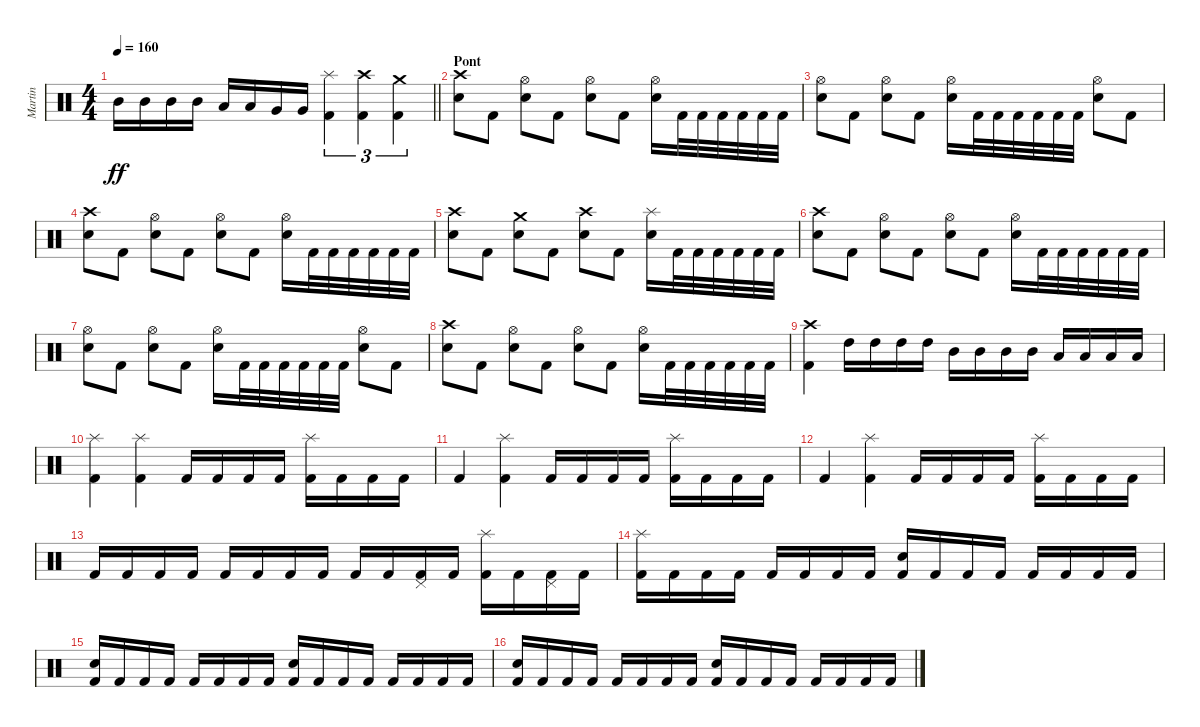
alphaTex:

\track ("Martin" "Martin") {instrument percussion}
\staff {score}
\articulation defaults
\ts (4 4)
\tempo 160
\clef neutral
\barLineRight lightlight
\ks c "Mid Tom (hit)".16{dy ff} "Mid Tom (hit)".16 "Mid Tom (hit)".16 "Mid Tom (hit)".16 "Low Tom (hit)".16 "Low Tom (hit)".16 "Very Low Tom (hit)".16 "Very Low Tom (hit)".16
("Splash (hit)" "Kick (hit) 2").4{tu (3 2)} ("Crash high (hit)" "Kick (hit) 2").4{tu (3 2)} ("Crash medium (hit)" "Kick (hit) 2").4{tu (3 2)} |
\section ("" "Pont")
("Crash high (hit)" "Electric Snare (hit)").8 "Kick (hit) 2".8 ("Hi-Hat (open)" "Electric Snare (hit)").8 "Kick (hit) 2".8 ("Hi-Hat (open)" "Electric Snare (hit)").8 "Kick (hit) 2".8 ("Hi-Hat (open)" "Electric Snare (hit)").16 "Kick (hit) 2".32 "Kick (hit) 2".32 "Kick (hit) 2".32 "Kick (hit) 2".32 "Kick (hit) 2".32 "Kick (hit) 2".32 |
("Hi-Hat (open)" "Electric Snare (hit)").8 "Kick (hit) 2".8 ("Hi-Hat (open)" "Electric Snare (hit)").8 "Kick (hit) 2".8 ("Hi-Hat (open)" "Electric Snare (hit)").16 "Kick (hit) 2".32 "Kick (hit) 2".32 "Kick (hit) 2".32 "Kick (hit) 2".32 "Kick (hit) 2".32 "Kick (hit) 2".32 ("Hi-Hat (open)" "Electric Snare (hit)").8 "Kick (hit) 2".8 |
("Crash high (hit)" "Electric Snare (hit)").8 "Kick (hit) 2".8 ("Hi-Hat (open)" "Electric Snare (hit)").8 "Kick (hit) 2".8 ("Hi-Hat (open)" "Electric Snare (hit)").8 "Kick (hit) 2".8 ("Hi-Hat (open)" "Electric Snare (hit)").16 "Kick (hit) 2".32 "Kick (hit) 2".32 "Kick (hit) 2".32 "Kick (hit) 2".32 "Kick (hit) 2".32 "Kick (hit) 2".32 |
("Crash high (hit)" "Electric Snare (hit)").8 "Kick (hit) 2".8 ("Crash medium (hit)" "Electric Snare (hit)").8 "Kick (hit) 2".8 ("Crash high (hit)" "Electric Snare (hit)").8 "Kick (hit) 2".8 ("Splash (hit)" "Electric Snare (hit)").16 "Kick (hit) 2".32 "Kick (hit) 2".32 "Kick (hit) 2".32 "Kick (hit) 2".32 "Kick (hit) 2".32 "Kick (hit) 2".32 |
("Crash high (hit)" "Electric Snare (hit)").8 "Kick (hit) 2".8 ("Hi-Hat (open)" "Electric Snare (hit)").8 "Kick (hit) 2".8 ("Hi-Hat (open)" "Electric Snare (hit)").8 "Kick (hit) 2".8 ("Hi-Hat (open)" "Electric Snare (hit)").16 "Kick (hit) 2".32 "Kick (hit) 2".32 "Kick (hit) 2".32 "Kick (hit) 2".32 "Kick (hit) 2".32 "Kick (hit) 2".32 |
("Hi-Hat (open)" "Electric Snare (hit)").8 "Kick (hit) 2".8 ("Hi-Hat (open)" "Electric Snare (hit)").8 "Kick (hit) 2".8 ("Hi-Hat (open)" "Electric Snare (hit)").16 "Kick (hit) 2".32 "Kick (hit) 2".32 "Kick (hit) 2".32 "Kick (hit) 2".32 "Kick (hit) 2".32 "Kick (hit) 2".32 ("Hi-Hat (open)" "Electric Snare (hit)").8 "Kick (hit) 2".8 |
("Crash high (hit)" "Electric Snare (hit)").8 "Kick (hit) 2".8 ("Hi-Hat (open)" "Electric Snare (hit)").8 "Kick (hit) 2".8 ("Hi-Hat (open)" "Electric Snare (hit)").8 "Kick (hit) 2".8 ("Hi-Hat (open)" "Electric Snare (hit)").16 "Kick (hit) 2".32 "Kick (hit) 2".32 "Kick (hit) 2".32 "Kick (hit) 2".32 "Kick (hit) 2".32 "Kick (hit) 2".32 |
("Crash high (hit)" "Kick (hit) 2").4 "High Tom (hit)".16 "High Tom (hit)".16 "High Tom (hit)".16 "High Tom (hit)".16 "Mid Tom (hit)".16 "Mid Tom (hit)".16 "Mid Tom (hit)".16 "Mid Tom (hit)".16 "Low Tom (hit)".16 "Low Tom (hit)".16 "Low Tom (hit)".16 "Low Tom (hit)".16 |
("Splash (hit)" "Kick (hit) 2").4 ("Splash (hit)" "Kick (hit) 2").4 "Kick (hit) 2".16 "Kick (hit) 2".16 "Kick (hit) 2".16 "Kick (hit) 2".16 ("Splash (hit)" "Kick (hit) 2").16 "Kick (hit) 2".16 "Kick (hit) 2".16 "Kick (hit) 2".16 |
"Kick (hit) 2".4 ("Splash (hit)" "Kick (hit) 2").4 "Kick (hit) 2".16 "Kick (hit) 2".16 "Kick (hit) 2".16 "Kick (hit) 2".16 ("Splash (hit)" "Kick (hit) 2").16 "Kick (hit) 2".16 "Kick (hit) 2".16 "Kick (hit) 2".16 |
"Kick (hit) 2".4 ("Splash (hit)" "Kick (hit) 2").4 "Kick (hit) 2".16 "Kick (hit) 2".16 "Kick (hit) 2".16 "Kick (hit) 2".16 ("Splash (hit)" "Kick (hit) 2").16 "Kick (hit) 2".16 "Kick (hit) 2".16 "Kick (hit) 2".16 |
"Kick (hit) 2".16 "Kick (hit) 2".16 "Kick (hit) 2".16 "Kick (hit) 2".16 "Kick (hit) 2".16 "Kick (hit) 2".16 "Kick (hit) 2".16 "Kick (hit) 2".16 "Kick (hit) 2".16 "Kick (hit) 2".16 ("Pedal Hi-Hat (hit)" "Kick (hit) 2").16 "Kick (hit) 2".16 ("Splash (hit)" "Kick (hit) 2").16 "Kick (hit) 2".16 ("Pedal Hi-Hat (hit)" "Kick (hit) 2").16 "Kick (hit) 2".16 |
("Splash (hit)" "Kick (hit) 2").16 "Kick (hit) 2".16 "Kick (hit) 2".16 "Kick (hit) 2".16 "Kick (hit) 2".16 "Kick (hit) 2".16 "Kick (hit) 2".16 "Kick (hit) 2".16 ("Electric Snare (hit)" "Kick (hit) 2").16 "Kick (hit) 2".16 "Kick (hit) 2".16 "Kick (hit) 2".16 "Kick (hit) 2".16 "Kick (hit) 2".16 "Kick (hit) 2".16 "Kick (hit) 2".16 |
("Electric Snare (hit)" "Kick (hit) 2").16 "Kick (hit) 2".16 "Kick (hit) 2".16 "Kick (hit) 2".16 "Kick (hit) 2".16 "Kick (hit) 2".16 "Kick (hit) 2".16 "Kick (hit) 2".16 ("Electric Snare (hit)" "Kick (hit) 2").16 "Kick (hit) 2".16 "Kick (hit) 2".16 "Kick (hit) 2".16 "Kick (hit) 2".16 "Kick (hit) 2".16 "Kick (hit) 2".16 "Kick (hit) 2".16 |
("Electric Snare (hit)" "Kick (hit) 2").16 "Kick (hit) 2".16 "Kick (hit) 2".16 "Kick (hit) 2".16 "Kick (hit) 2".16 "Kick (hit) 2".16 "Kick (hit) 2".16 "Kick (hit) 2".16 ("Electric Snare (hit)" "Kick (hit) 2").16 "Kick (hit) 2".16 "Kick (hit) 2".16 "Kick (hit) 2".16 "Kick (hit) 2".16 "Kick (hit) 2".16 "Kick (hit) 2".16 "Kick (hit) 2".16
